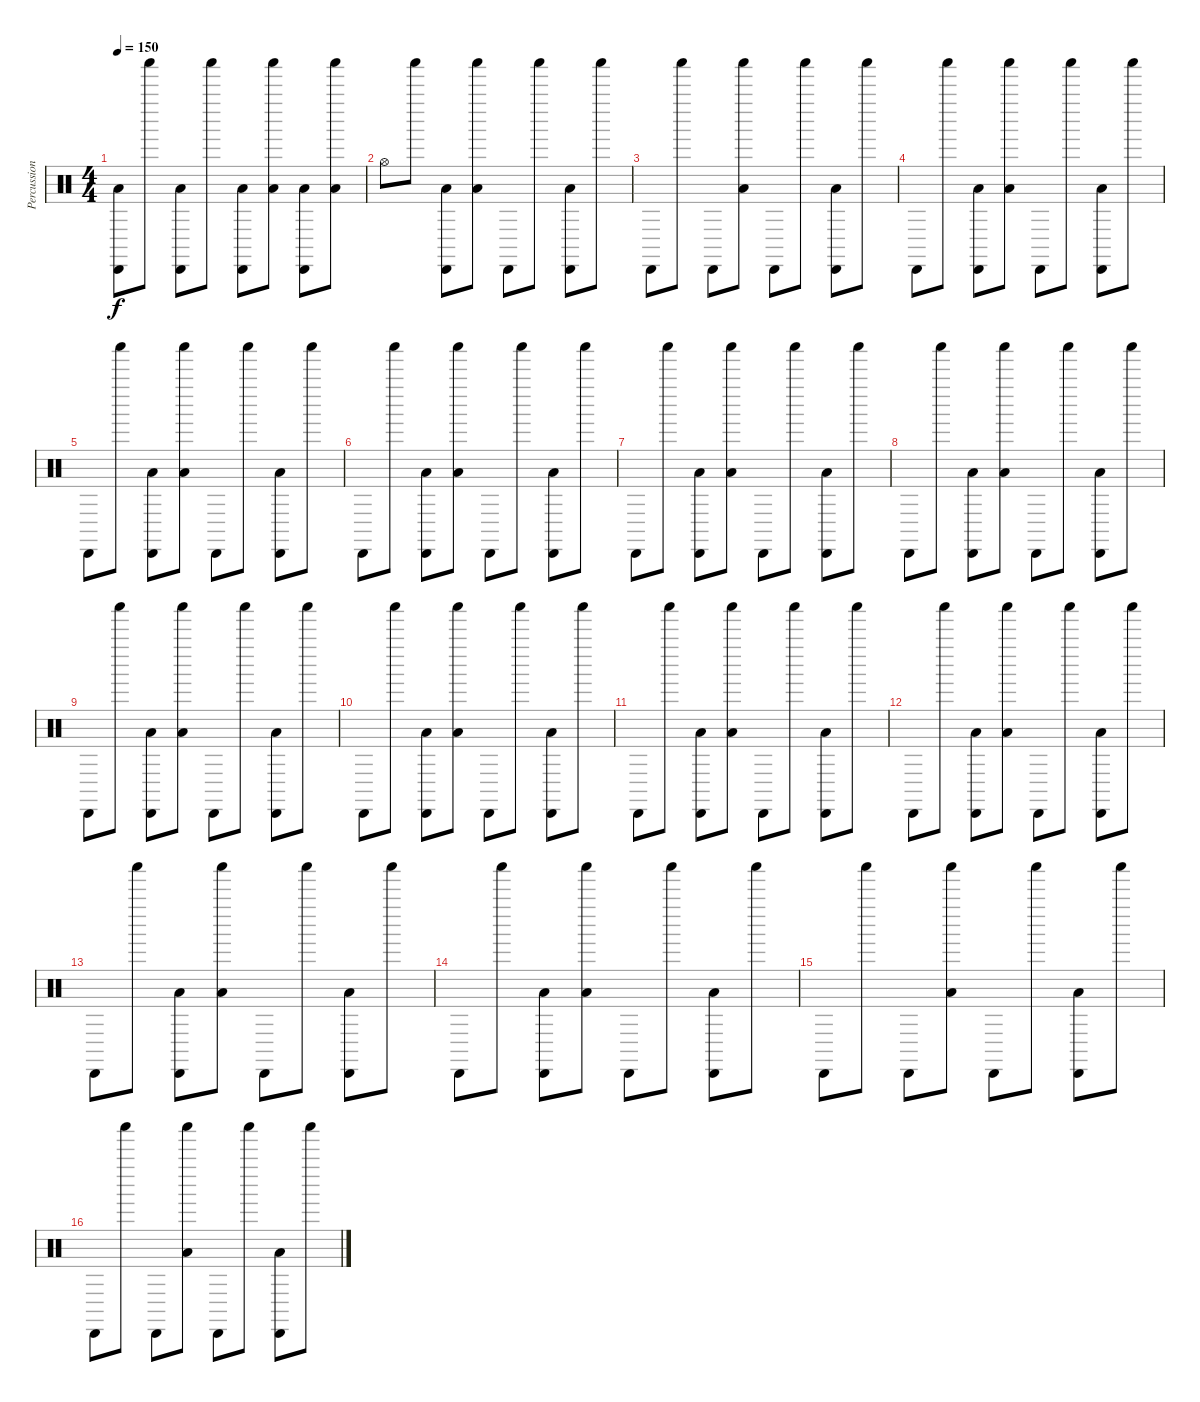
\track ("Percussion" "Percussion") {instrument percussion}
\staff
\articulation defaults
\ts (4 4)
\tempo 150
\clef neutral
\ks c
("Cabasa (hit)" "Low Floor Tom (hit)").8{dy f} "Shaker (hit)".8 ("Cabasa (hit)" "Low Floor Tom (hit)").8 "Shaker (hit)".8 ("Cabasa (hit)" "Low Floor Tom (hit)").8 ("Shaker (hit)" "Low Floor Tom (hit)").8 ("Cabasa (hit)" "Low Floor Tom (hit)").8 ("Shaker (hit)" "Low Floor Tom (hit)").8 |
"Hi-Hat (open)".8 "Shaker (hit)".8 ("Cabasa (hit)" "Low Floor Tom (hit)").8 ("Shaker (hit)" "Low Floor Tom (hit)").8 "Cabasa (hit)".8 "Shaker (hit)".8 ("Cabasa (hit)" "Low Floor Tom (hit)").8 "Shaker (hit)".8 |
"Cabasa (hit)".8 "Shaker (hit)".8 "Cabasa (hit)".8 ("Shaker (hit)" "Low Floor Tom (hit)").8 "Cabasa (hit)".8 "Shaker (hit)".8 ("Cabasa (hit)" "Low Floor Tom (hit)").8 "Shaker (hit)".8 |
"Cabasa (hit)".8 "Shaker (hit)".8 ("Cabasa (hit)" "Low Floor Tom (hit)").8 ("Shaker (hit)" "Low Floor Tom (hit)").8 "Cabasa (hit)".8 "Shaker (hit)".8 ("Cabasa (hit)" "Low Floor Tom (hit)").8 "Shaker (hit)".8 |
"Cabasa (hit)".8 "Shaker (hit)".8 ("Cabasa (hit)" "Low Floor Tom (hit)").8 ("Shaker (hit)" "Low Floor Tom (hit)").8 "Cabasa (hit)".8 "Shaker (hit)".8 ("Cabasa (hit)" "Low Floor Tom (hit)").8 "Shaker (hit)".8 |
"Cabasa (hit)".8 "Shaker (hit)".8 ("Cabasa (hit)" "Low Floor Tom (hit)").8 ("Shaker (hit)" "Low Floor Tom (hit)").8 "Cabasa (hit)".8 "Shaker (hit)".8 ("Cabasa (hit)" "Low Floor Tom (hit)").8 "Shaker (hit)".8 |
"Cabasa (hit)".8 "Shaker (hit)".8 ("Cabasa (hit)" "Low Floor Tom (hit)").8 ("Shaker (hit)" "Low Floor Tom (hit)").8 "Cabasa (hit)".8 "Shaker (hit)".8 ("Cabasa (hit)" "Low Floor Tom (hit)").8 "Shaker (hit)".8 |
"Cabasa (hit)".8 "Shaker (hit)".8 ("Cabasa (hit)" "Low Floor Tom (hit)").8 ("Shaker (hit)" "Low Floor Tom (hit)").8 "Cabasa (hit)".8 "Shaker (hit)".8 ("Cabasa (hit)" "Low Floor Tom (hit)").8 "Shaker (hit)".8 |
"Cabasa (hit)".8 "Shaker (hit)".8 ("Cabasa (hit)" "Low Floor Tom (hit)").8 ("Shaker (hit)" "Low Floor Tom (hit)").8 "Cabasa (hit)".8 "Shaker (hit)".8 ("Cabasa (hit)" "Low Floor Tom (hit)").8 "Shaker (hit)".8 |
"Cabasa (hit)".8 "Shaker (hit)".8 ("Cabasa (hit)" "Low Floor Tom (hit)").8 ("Shaker (hit)" "Low Floor Tom (hit)").8 "Cabasa (hit)".8 "Shaker (hit)".8 ("Cabasa (hit)" "Low Floor Tom (hit)").8 "Shaker (hit)".8 |
"Cabasa (hit)".8 "Shaker (hit)".8 ("Cabasa (hit)" "Low Floor Tom (hit)").8 ("Shaker (hit)" "Low Floor Tom (hit)").8 "Cabasa (hit)".8 "Shaker (hit)".8 ("Cabasa (hit)" "Low Floor Tom (hit)").8 "Shaker (hit)".8 |
"Cabasa (hit)".8 "Shaker (hit)".8 ("Cabasa (hit)" "Low Floor Tom (hit)").8 ("Shaker (hit)" "Low Floor Tom (hit)").8 "Cabasa (hit)".8 "Shaker (hit)".8 ("Cabasa (hit)" "Low Floor Tom (hit)").8 "Shaker (hit)".8 |
"Cabasa (hit)".8 "Shaker (hit)".8 ("Cabasa (hit)" "Low Floor Tom (hit)").8 ("Shaker (hit)" "Low Floor Tom (hit)").8 "Cabasa (hit)".8 "Shaker (hit)".8 ("Cabasa (hit)" "Low Floor Tom (hit)").8 "Shaker (hit)".8 |
"Cabasa (hit)".8 "Shaker (hit)".8 ("Cabasa (hit)" "Low Floor Tom (hit)").8 ("Shaker (hit)" "Low Floor Tom (hit)").8 "Cabasa (hit)".8 "Shaker (hit)".8 ("Cabasa (hit)" "Low Floor Tom (hit)").8 "Shaker (hit)".8 |
"Cabasa (hit)".8 "Shaker (hit)".8 "Cabasa (hit)".8 ("Shaker (hit)" "Low Floor Tom (hit)").8 "Cabasa (hit)".8 "Shaker (hit)".8 ("Cabasa (hit)" "Low Floor Tom (hit)").8 "Shaker (hit)".8 |
"Cabasa (hit)".8 "Shaker (hit)".8 "Cabasa (hit)".8 ("Shaker (hit)" "Low Floor Tom (hit)").8 "Cabasa (hit)".8 "Shaker (hit)".8 ("Cabasa (hit)" "Low Floor Tom (hit)").8 "Shaker (hit)".8
